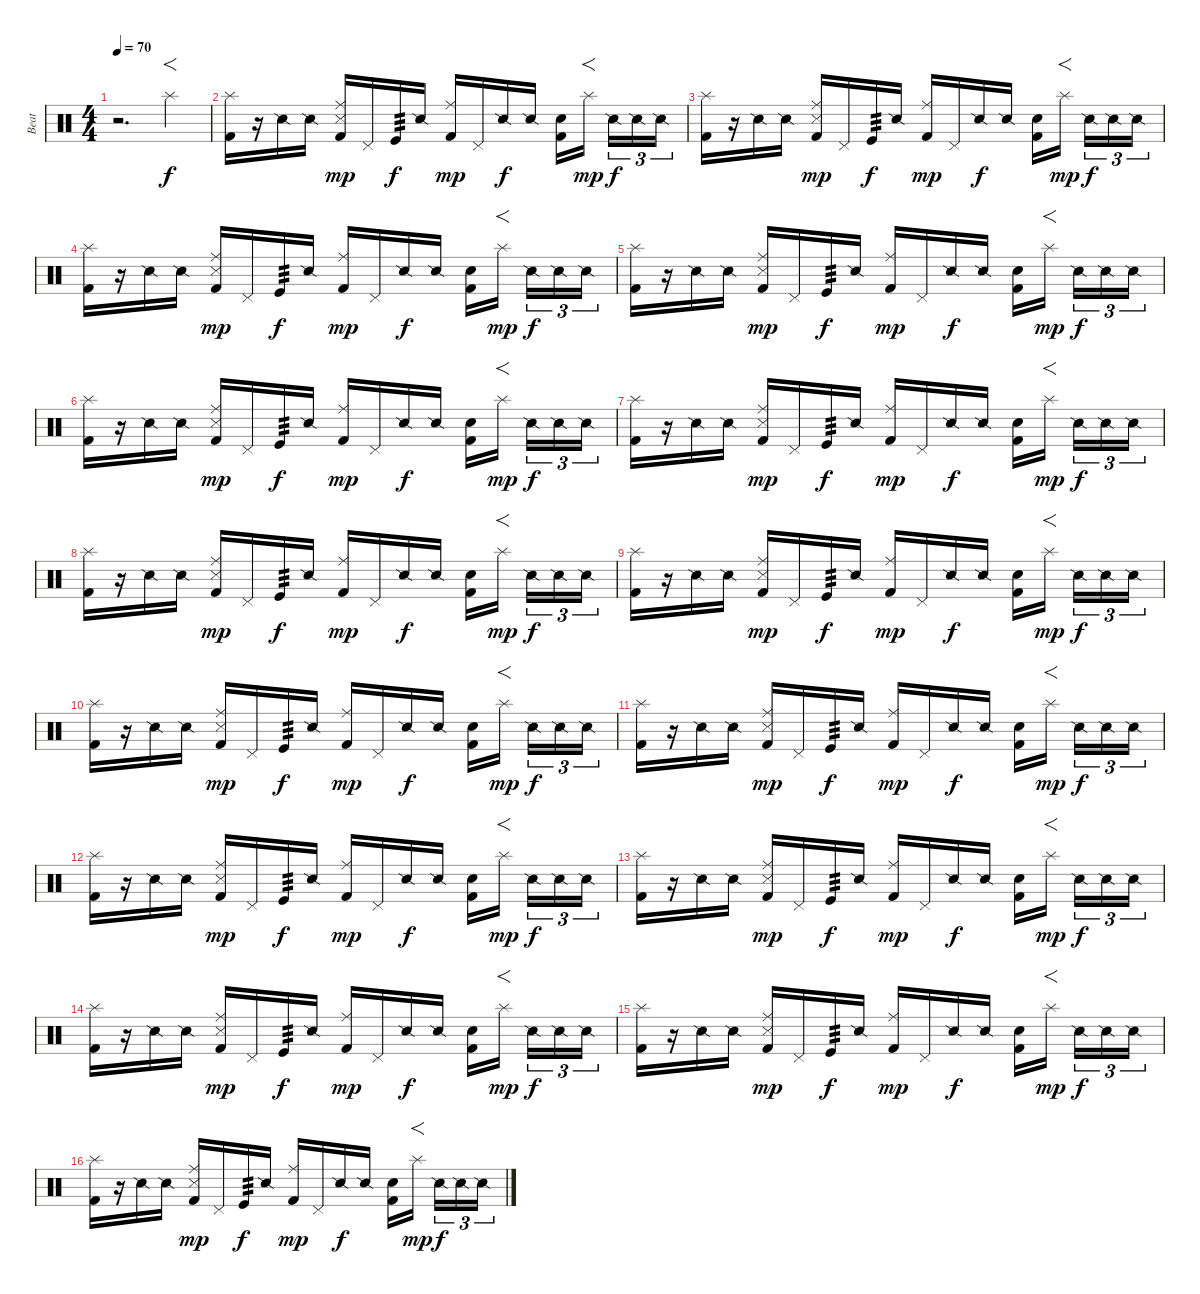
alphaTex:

\track ("Beat" "Beat") {instrument percussion}
\staff {score}
\articulation defaults
\ts (4 4)
\tempo 70
\clef neutral
\ks c
r.2{d dy f} "Splash (hit)".4{f} |
("Splash (hit)" "Kick (hit) 2").16 r.16 "Snare (side stick) 2".16 "Snare (side stick) 2".16 ("Metronome (hit)" "Ride (middle)" "Kick (hit) 2").16{dy mp} "Pedal Hi-Hat (hit)".16 "Kick (hit)".16{tp 3 dy f} "Snare (side stick) 2".16 ("Ride (middle)" "Kick (hit) 2").16{dy mp} "Pedal Hi-Hat (hit)".16 "Snare (side stick) 2".16{dy f} "Snare (side stick) 2".16 ("Electric Snare (hit)" "Kick (hit) 2").16 "Splash (hit)".16{f dy mp} "Snare (side stick) 2".16{tu (3 2) dy f} "Snare (side stick) 2".16{tu (3 2)} "Snare (side stick) 2".16{tu (3 2)} |
("Splash (hit)" "Kick (hit) 2").16 r.16 "Snare (side stick) 2".16 "Snare (side stick) 2".16 ("Metronome (hit)" "Ride (middle)" "Kick (hit) 2").16{dy mp} "Pedal Hi-Hat (hit)".16 "Kick (hit)".16{tp 3 dy f} "Snare (side stick) 2".16 ("Ride (middle)" "Kick (hit) 2").16{dy mp} "Pedal Hi-Hat (hit)".16 "Snare (side stick) 2".16{dy f} "Snare (side stick) 2".16 ("Electric Snare (hit)" "Kick (hit) 2").16 "Splash (hit)".16{f dy mp} "Snare (side stick) 2".16{tu (3 2) dy f} "Snare (side stick) 2".16{tu (3 2)} "Snare (side stick) 2".16{tu (3 2)} |
("Splash (hit)" "Kick (hit) 2").16 r.16 "Snare (side stick) 2".16 "Snare (side stick) 2".16 ("Metronome (hit)" "Ride (middle)" "Kick (hit) 2").16{dy mp} "Pedal Hi-Hat (hit)".16 "Kick (hit)".16{tp 3 dy f} "Snare (side stick) 2".16 ("Ride (middle)" "Kick (hit) 2").16{dy mp} "Pedal Hi-Hat (hit)".16 "Snare (side stick) 2".16{dy f} "Snare (side stick) 2".16 ("Electric Snare (hit)" "Kick (hit) 2").16 "Splash (hit)".16{f dy mp} "Snare (side stick) 2".16{tu (3 2) dy f} "Snare (side stick) 2".16{tu (3 2)} "Snare (side stick) 2".16{tu (3 2)} |
("Splash (hit)" "Kick (hit) 2").16 r.16 "Snare (side stick) 2".16 "Snare (side stick) 2".16 ("Metronome (hit)" "Ride (middle)" "Kick (hit) 2").16{dy mp} "Pedal Hi-Hat (hit)".16 "Kick (hit)".16{tp 3 dy f} "Snare (side stick) 2".16 ("Ride (middle)" "Kick (hit) 2").16{dy mp} "Pedal Hi-Hat (hit)".16 "Snare (side stick) 2".16{dy f} "Snare (side stick) 2".16 ("Electric Snare (hit)" "Kick (hit) 2").16 "Splash (hit)".16{f dy mp} "Snare (side stick) 2".16{tu (3 2) dy f} "Snare (side stick) 2".16{tu (3 2)} "Snare (side stick) 2".16{tu (3 2)} |
("Splash (hit)" "Kick (hit) 2").16 r.16 "Snare (side stick) 2".16 "Snare (side stick) 2".16 ("Metronome (hit)" "Ride (middle)" "Kick (hit) 2").16{dy mp} "Pedal Hi-Hat (hit)".16 "Kick (hit)".16{tp 3 dy f} "Snare (side stick) 2".16 ("Ride (middle)" "Kick (hit) 2").16{dy mp} "Pedal Hi-Hat (hit)".16 "Snare (side stick) 2".16{dy f} "Snare (side stick) 2".16 ("Electric Snare (hit)" "Kick (hit) 2").16 "Splash (hit)".16{f dy mp} "Snare (side stick) 2".16{tu (3 2) dy f} "Snare (side stick) 2".16{tu (3 2)} "Snare (side stick) 2".16{tu (3 2)} |
("Splash (hit)" "Kick (hit) 2").16 r.16 "Snare (side stick) 2".16 "Snare (side stick) 2".16 ("Metronome (hit)" "Ride (middle)" "Kick (hit) 2").16{dy mp} "Pedal Hi-Hat (hit)".16 "Kick (hit)".16{tp 3 dy f} "Snare (side stick) 2".16 ("Ride (middle)" "Kick (hit) 2").16{dy mp} "Pedal Hi-Hat (hit)".16 "Snare (side stick) 2".16{dy f} "Snare (side stick) 2".16 ("Electric Snare (hit)" "Kick (hit) 2").16 "Splash (hit)".16{f dy mp} "Snare (side stick) 2".16{tu (3 2) dy f} "Snare (side stick) 2".16{tu (3 2)} "Snare (side stick) 2".16{tu (3 2)} |
("Splash (hit)" "Kick (hit) 2").16 r.16 "Snare (side stick) 2".16 "Snare (side stick) 2".16 ("Metronome (hit)" "Ride (middle)" "Kick (hit) 2").16{dy mp} "Pedal Hi-Hat (hit)".16 "Kick (hit)".16{tp 3 dy f} "Snare (side stick) 2".16 ("Ride (middle)" "Kick (hit) 2").16{dy mp} "Pedal Hi-Hat (hit)".16 "Snare (side stick) 2".16{dy f} "Snare (side stick) 2".16 ("Electric Snare (hit)" "Kick (hit) 2").16 "Splash (hit)".16{f dy mp} "Snare (side stick) 2".16{tu (3 2) dy f} "Snare (side stick) 2".16{tu (3 2)} "Snare (side stick) 2".16{tu (3 2)} |
("Splash (hit)" "Kick (hit) 2").16 r.16 "Snare (side stick) 2".16 "Snare (side stick) 2".16 ("Metronome (hit)" "Ride (middle)" "Kick (hit) 2").16{dy mp} "Pedal Hi-Hat (hit)".16 "Kick (hit)".16{tp 3 dy f} "Snare (side stick) 2".16 ("Ride (middle)" "Kick (hit) 2").16{dy mp} "Pedal Hi-Hat (hit)".16 "Snare (side stick) 2".16{dy f} "Snare (side stick) 2".16 ("Electric Snare (hit)" "Kick (hit) 2").16 "Splash (hit)".16{f dy mp} "Snare (side stick) 2".16{tu (3 2) dy f} "Snare (side stick) 2".16{tu (3 2)} "Snare (side stick) 2".16{tu (3 2)} |
("Splash (hit)" "Kick (hit) 2").16 r.16 "Snare (side stick) 2".16 "Snare (side stick) 2".16 ("Metronome (hit)" "Ride (middle)" "Kick (hit) 2").16{dy mp} "Pedal Hi-Hat (hit)".16 "Kick (hit)".16{tp 3 dy f} "Snare (side stick) 2".16 ("Ride (middle)" "Kick (hit) 2").16{dy mp} "Pedal Hi-Hat (hit)".16 "Snare (side stick) 2".16{dy f} "Snare (side stick) 2".16 ("Electric Snare (hit)" "Kick (hit) 2").16 "Splash (hit)".16{f dy mp} "Snare (side stick) 2".16{tu (3 2) dy f} "Snare (side stick) 2".16{tu (3 2)} "Snare (side stick) 2".16{tu (3 2)} |
("Splash (hit)" "Kick (hit) 2").16 r.16 "Snare (side stick) 2".16 "Snare (side stick) 2".16 ("Metronome (hit)" "Ride (middle)" "Kick (hit) 2").16{dy mp} "Pedal Hi-Hat (hit)".16 "Kick (hit)".16{tp 3 dy f} "Snare (side stick) 2".16 ("Ride (middle)" "Kick (hit) 2").16{dy mp} "Pedal Hi-Hat (hit)".16 "Snare (side stick) 2".16{dy f} "Snare (side stick) 2".16 ("Electric Snare (hit)" "Kick (hit) 2").16 "Splash (hit)".16{f dy mp} "Snare (side stick) 2".16{tu (3 2) dy f} "Snare (side stick) 2".16{tu (3 2)} "Snare (side stick) 2".16{tu (3 2)} |
("Splash (hit)" "Kick (hit) 2").16 r.16 "Snare (side stick) 2".16 "Snare (side stick) 2".16 ("Metronome (hit)" "Ride (middle)" "Kick (hit) 2").16{dy mp} "Pedal Hi-Hat (hit)".16 "Kick (hit)".16{tp 3 dy f} "Snare (side stick) 2".16 ("Ride (middle)" "Kick (hit) 2").16{dy mp} "Pedal Hi-Hat (hit)".16 "Snare (side stick) 2".16{dy f} "Snare (side stick) 2".16 ("Electric Snare (hit)" "Kick (hit) 2").16 "Splash (hit)".16{f dy mp} "Snare (side stick) 2".16{tu (3 2) dy f} "Snare (side stick) 2".16{tu (3 2)} "Snare (side stick) 2".16{tu (3 2)} |
("Splash (hit)" "Kick (hit) 2").16 r.16 "Snare (side stick) 2".16 "Snare (side stick) 2".16 ("Metronome (hit)" "Ride (middle)" "Kick (hit) 2").16{dy mp} "Pedal Hi-Hat (hit)".16 "Kick (hit)".16{tp 3 dy f} "Snare (side stick) 2".16 ("Ride (middle)" "Kick (hit) 2").16{dy mp} "Pedal Hi-Hat (hit)".16 "Snare (side stick) 2".16{dy f} "Snare (side stick) 2".16 ("Electric Snare (hit)" "Kick (hit) 2").16 "Splash (hit)".16{f dy mp} "Snare (side stick) 2".16{tu (3 2) dy f} "Snare (side stick) 2".16{tu (3 2)} "Snare (side stick) 2".16{tu (3 2)} |
("Splash (hit)" "Kick (hit) 2").16 r.16 "Snare (side stick) 2".16 "Snare (side stick) 2".16 ("Metronome (hit)" "Ride (middle)" "Kick (hit) 2").16{dy mp} "Pedal Hi-Hat (hit)".16 "Kick (hit)".16{tp 3 dy f} "Snare (side stick) 2".16 ("Ride (middle)" "Kick (hit) 2").16{dy mp} "Pedal Hi-Hat (hit)".16 "Snare (side stick) 2".16{dy f} "Snare (side stick) 2".16 ("Electric Snare (hit)" "Kick (hit) 2").16 "Splash (hit)".16{f dy mp} "Snare (side stick) 2".16{tu (3 2) dy f} "Snare (side stick) 2".16{tu (3 2)} "Snare (side stick) 2".16{tu (3 2)} |
("Splash (hit)" "Kick (hit) 2").16 r.16 "Snare (side stick) 2".16 "Snare (side stick) 2".16 ("Metronome (hit)" "Ride (middle)" "Kick (hit) 2").16{dy mp} "Pedal Hi-Hat (hit)".16 "Kick (hit)".16{tp 3 dy f} "Snare (side stick) 2".16 ("Ride (middle)" "Kick (hit) 2").16{dy mp} "Pedal Hi-Hat (hit)".16 "Snare (side stick) 2".16{dy f} "Snare (side stick) 2".16 ("Electric Snare (hit)" "Kick (hit) 2").16 "Splash (hit)".16{f dy mp} "Snare (side stick) 2".16{tu (3 2) dy f} "Snare (side stick) 2".16{tu (3 2)} "Snare (side stick) 2".16{tu (3 2)} |
("Splash (hit)" "Kick (hit) 2").16 r.16 "Snare (side stick) 2".16 "Snare (side stick) 2".16 ("Metronome (hit)" "Ride (middle)" "Kick (hit) 2").16{dy mp} "Pedal Hi-Hat (hit)".16 "Kick (hit)".16{tp 3 dy f} "Snare (side stick) 2".16 ("Ride (middle)" "Kick (hit) 2").16{dy mp} "Pedal Hi-Hat (hit)".16 "Snare (side stick) 2".16{dy f} "Snare (side stick) 2".16 ("Electric Snare (hit)" "Kick (hit) 2").16 "Splash (hit)".16{f dy mp} "Snare (side stick) 2".16{tu (3 2) dy f} "Snare (side stick) 2".16{tu (3 2)} "Snare (side stick) 2".16{tu (3 2)}
